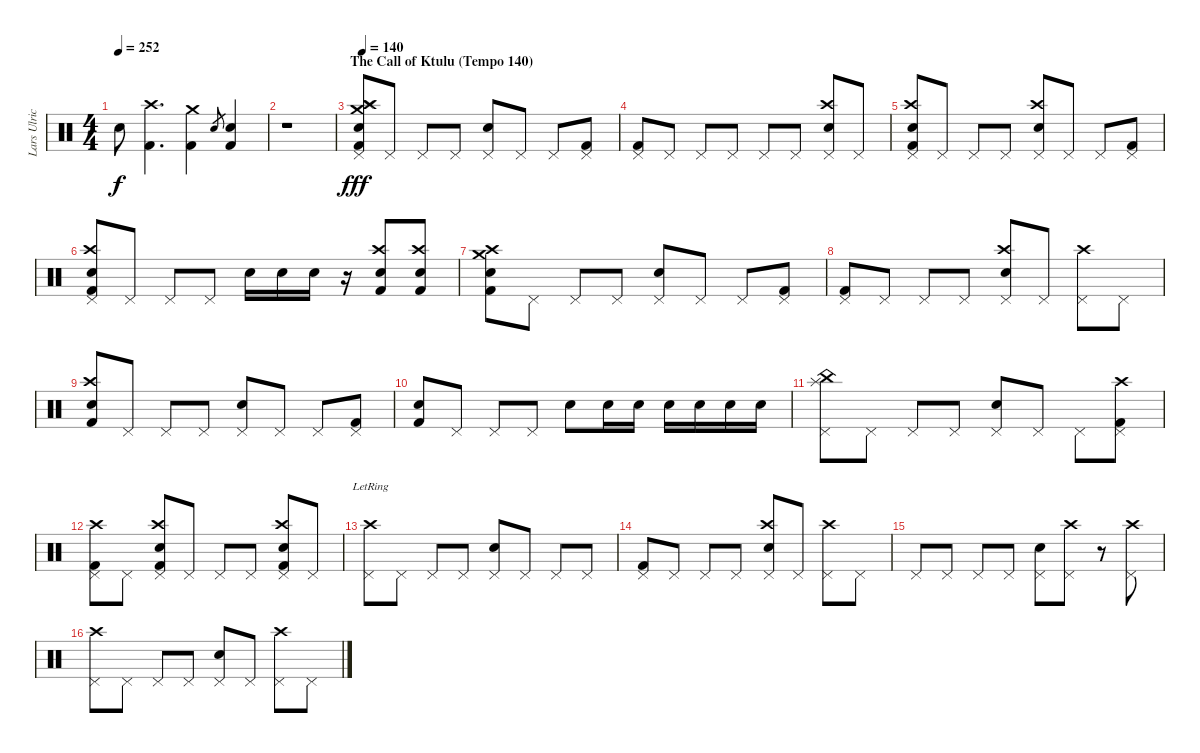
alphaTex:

\track ("Lars Ulrich (Drums)" "Lars Ulric") {instrument percussion}
\staff {score}
\articulation defaults
\ts (4 4)
\tempo 252
\clef neutral
\ks c "Snare (hit)"{t}.8{dy f}
("Crash high (hit)" "Kick (hit) 2").4{d} ("Crash medium (hit)" "Kick (hit) 2").4 "Electric Snare (hit)".8{gr} ("Electric Snare (hit)" "Kick (hit) 2").4 |
r.1 |
\section ("" "The Call of Ktulu (Tempo 140)")
\tempo 140
("Crash medium (hit)" "Splash (hit)" "Pedal Hi-Hat (hit)" "Crash high (hit)" "Snare (hit) 2" "Kick (hit) 2").8{dy fff} "Pedal Hi-Hat (hit)".8 "Pedal Hi-Hat (hit)".8 "Pedal Hi-Hat (hit)".8 ("Pedal Hi-Hat (hit)" "Snare (hit) 2").8 "Pedal Hi-Hat (hit)".8 "Pedal Hi-Hat (hit)".8 ("Pedal Hi-Hat (hit)" "Kick (hit) 2").8 |
("Pedal Hi-Hat (hit)" "Kick (hit) 2").8 "Pedal Hi-Hat (hit)".8 "Pedal Hi-Hat (hit)".8 "Pedal Hi-Hat (hit)".8 "Pedal Hi-Hat (hit)".8 "Pedal Hi-Hat (hit)".8 ("Crash high (hit)" "Pedal Hi-Hat (hit)" "Snare (hit) 2").8 "Pedal Hi-Hat (hit)".8 |
("Crash high (hit)" "Pedal Hi-Hat (hit)" "Snare (hit) 2" "Kick (hit) 2").8 "Pedal Hi-Hat (hit)".8 "Pedal Hi-Hat (hit)".8 "Pedal Hi-Hat (hit)".8 ("Crash high (hit)" "Pedal Hi-Hat (hit)" "Snare (hit) 2").8 "Pedal Hi-Hat (hit)".8 "Pedal Hi-Hat (hit)".8 ("Pedal Hi-Hat (hit)" "Kick (hit) 2").8 |
("Crash high (hit)" "Pedal Hi-Hat (hit)" "Snare (hit) 2" "Kick (hit) 2").8 "Pedal Hi-Hat (hit)".8 "Pedal Hi-Hat (hit)".8 "Pedal Hi-Hat (hit)".8 "Snare (hit) 2".16 "Snare (hit) 2".16 "Snare (hit) 2".16 r.16 ("Crash high (hit)" "Snare (hit) 2" "Kick (hit) 2").8 ("Crash high (hit)" "Snare (hit) 2" "Kick (hit) 2").8 |
("Crash medium (hit)" "Crash high (hit)" "Snare (hit) 2" "Kick (hit) 2").8 "Pedal Hi-Hat (hit)".8 "Pedal Hi-Hat (hit)".8 "Pedal Hi-Hat (hit)".8 ("Pedal Hi-Hat (hit)" "Snare (hit) 2").8 "Pedal Hi-Hat (hit)".8 "Pedal Hi-Hat (hit)".8 ("Pedal Hi-Hat (hit)" "Kick (hit) 2").8 |
("Pedal Hi-Hat (hit)" "Kick (hit) 2").8 "Pedal Hi-Hat (hit)".8 "Pedal Hi-Hat (hit)".8 "Pedal Hi-Hat (hit)".8 ("Crash high (hit)" "Pedal Hi-Hat (hit)" "Snare (hit) 2").8 "Pedal Hi-Hat (hit)".8 ("Crash high (hit)" "Pedal Hi-Hat (hit)").8 "Pedal Hi-Hat (hit)".8 |
("Crash high (hit)" "Snare (hit) 2" "Kick (hit) 2").8 "Pedal Hi-Hat (hit)".8 "Pedal Hi-Hat (hit)".8 "Pedal Hi-Hat (hit)".8 ("Pedal Hi-Hat (hit)" "Snare (hit) 2").8 "Pedal Hi-Hat (hit)".8 "Pedal Hi-Hat (hit)".8 ("Pedal Hi-Hat (hit)" "Kick (hit) 2").8 |
("Snare (hit) 2" "Kick (hit) 2").8 "Pedal Hi-Hat (hit)".8 "Pedal Hi-Hat (hit)".8 "Pedal Hi-Hat (hit)".8 "Snare (hit) 2".8 "Snare (hit) 2".16 "Snare (hit) 2".16 "Snare (hit) 2".16 "Snare (hit) 2".16 "Snare (hit) 2".16 "Snare (hit) 2".16 |
("China (hit)" "Splash (hit)" "Pedal Hi-Hat (hit)").8 "Pedal Hi-Hat (hit)".8 "Pedal Hi-Hat (hit)".8 "Pedal Hi-Hat (hit)".8 ("Pedal Hi-Hat (hit)" "Snare (hit) 2").8 "Pedal Hi-Hat (hit)".8 "Pedal Hi-Hat (hit)".8 ("Crash high (hit)" "Pedal Hi-Hat (hit)" "Kick (hit) 2").8 |
("Crash high (hit)" "Pedal Hi-Hat (hit)" "Kick (hit) 2").8 "Pedal Hi-Hat (hit)".8 ("Snare (hit) 2" "Crash high (hit)" "Pedal Hi-Hat (hit)" "Kick (hit) 2").8 "Pedal Hi-Hat (hit)".8 "Pedal Hi-Hat (hit)".8 "Pedal Hi-Hat (hit)".8 ("Snare (hit) 2" "Crash high (hit)" "Pedal Hi-Hat (hit)" "Kick (hit) 2").8 "Pedal Hi-Hat (hit)".8 |
("Crash high (hit)"{lr} "Pedal Hi-Hat (hit)").8 "Pedal Hi-Hat (hit)".8 "Pedal Hi-Hat (hit)".8 "Pedal Hi-Hat (hit)".8 ("Pedal Hi-Hat (hit)" "Snare (hit) 2").8 "Pedal Hi-Hat (hit)".8 "Pedal Hi-Hat (hit)".8 "Pedal Hi-Hat (hit)".8 |
("Pedal Hi-Hat (hit)" "Kick (hit) 2").8 "Pedal Hi-Hat (hit)".8 "Pedal Hi-Hat (hit)".8 "Pedal Hi-Hat (hit)".8 ("Crash high (hit)" "Pedal Hi-Hat (hit)" "Snare (hit) 2").8 "Pedal Hi-Hat (hit)".8 ("Crash high (hit)" "Pedal Hi-Hat (hit)").8 "Pedal Hi-Hat (hit)".8 |
"Pedal Hi-Hat (hit)".8 "Pedal Hi-Hat (hit)".8 "Pedal Hi-Hat (hit)".8 "Pedal Hi-Hat (hit)".8 ("Pedal Hi-Hat (hit)" "Snare (hit) 2").8 ("Crash high (hit)" "Pedal Hi-Hat (hit)").8 r.8 ("Crash high (hit)" "Pedal Hi-Hat (hit)").8 |
("Crash high (hit)" "Pedal Hi-Hat (hit)").8 "Pedal Hi-Hat (hit)".8 "Pedal Hi-Hat (hit)".8 "Pedal Hi-Hat (hit)".8 ("Pedal Hi-Hat (hit)" "Snare (hit) 2").8 "Pedal Hi-Hat (hit)".8 ("Crash high (hit)" "Pedal Hi-Hat (hit)").8 "Pedal Hi-Hat (hit)".8
